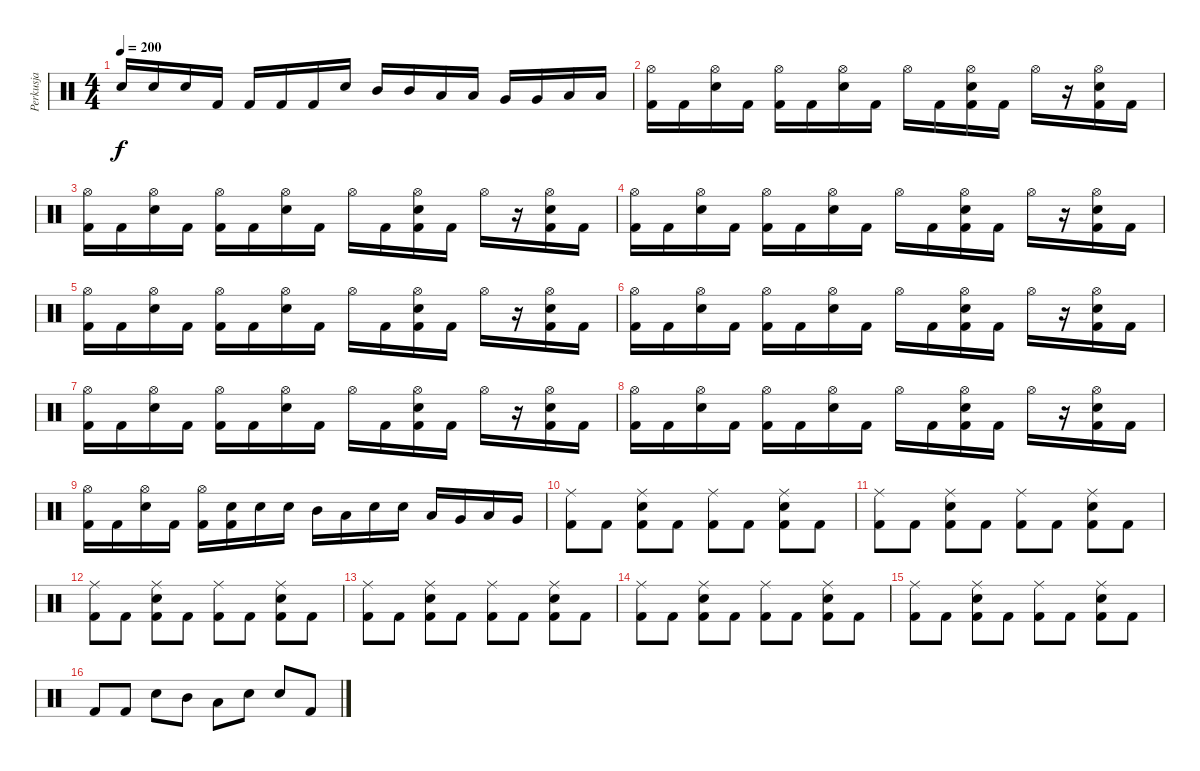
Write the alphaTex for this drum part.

\track ("Perkusja" "Perkusja") {instrument percussion}
\staff {score}
\articulation defaults
\ts (4 4)
\tempo 200
\clef neutral
\ks c "Snare (hit) 2".16{dy f} "Snare (hit) 2".16 "Snare (hit) 2".16 "Kick (hit) 2".16 "Kick (hit) 2".16 "Kick (hit) 2".16 "Kick (hit) 2".16 "Snare (hit) 2".16 "Mid Tom (hit)".16 "Mid Tom (hit)".16 "Low Tom (hit)".16 "Low Tom (hit)".16 "Very Low Tom (hit)".16 "Very Low Tom (hit)".16 "Low Floor Tom (hit)".16 "Low Floor Tom (hit)".16
|
("Hi-Hat (open)" "Kick (hit) 2").16 "Kick (hit) 2".16 ("Hi-Hat (open)" "Snare (hit) 2").16 "Kick (hit) 2".16 ("Hi-Hat (open)" "Kick (hit) 2").16 "Kick (hit) 2".16 ("Hi-Hat (open)" "Snare (hit) 2").16 "Kick (hit) 2".16 "Hi-Hat (open)".16 "Kick (hit) 2".16 ("Hi-Hat (open)" "Snare (hit) 2" "Kick (hit) 2").16 "Kick (hit) 2".16 "Hi-Hat (open)".16 r.16 ("Hi-Hat (open)" "Snare (hit) 2" "Kick (hit) 2").16 "Kick (hit) 2".16 |
("Hi-Hat (open)" "Kick (hit) 2").16 "Kick (hit) 2".16 ("Hi-Hat (open)" "Snare (hit) 2").16 "Kick (hit) 2".16 ("Hi-Hat (open)" "Kick (hit) 2").16 "Kick (hit) 2".16 ("Hi-Hat (open)" "Snare (hit) 2").16 "Kick (hit) 2".16 "Hi-Hat (open)".16 "Kick (hit) 2".16 ("Hi-Hat (open)" "Snare (hit) 2" "Kick (hit) 2").16 "Kick (hit) 2".16 "Hi-Hat (open)".16 r.16 ("Hi-Hat (open)" "Snare (hit) 2" "Kick (hit) 2").16 "Kick (hit) 2".16 |
("Hi-Hat (open)" "Kick (hit) 2").16 "Kick (hit) 2".16 ("Hi-Hat (open)" "Snare (hit) 2").16 "Kick (hit) 2".16 ("Hi-Hat (open)" "Kick (hit) 2").16 "Kick (hit) 2".16 ("Hi-Hat (open)" "Snare (hit) 2").16 "Kick (hit) 2".16 "Hi-Hat (open)".16 "Kick (hit) 2".16 ("Hi-Hat (open)" "Snare (hit) 2" "Kick (hit) 2").16 "Kick (hit) 2".16 "Hi-Hat (open)".16 r.16 ("Hi-Hat (open)" "Snare (hit) 2" "Kick (hit) 2").16 "Kick (hit) 2".16 |
("Hi-Hat (open)" "Kick (hit) 2").16 "Kick (hit) 2".16 ("Hi-Hat (open)" "Snare (hit) 2").16 "Kick (hit) 2".16 ("Hi-Hat (open)" "Kick (hit) 2").16 "Kick (hit) 2".16 ("Hi-Hat (open)" "Snare (hit) 2").16 "Kick (hit) 2".16 "Hi-Hat (open)".16 "Kick (hit) 2".16 ("Hi-Hat (open)" "Snare (hit) 2" "Kick (hit) 2").16 "Kick (hit) 2".16 "Hi-Hat (open)".16 r.16 ("Hi-Hat (open)" "Snare (hit) 2" "Kick (hit) 2").16 "Kick (hit) 2".16 |
("Hi-Hat (open)" "Kick (hit) 2").16 "Kick (hit) 2".16 ("Hi-Hat (open)" "Snare (hit) 2").16 "Kick (hit) 2".16 ("Hi-Hat (open)" "Kick (hit) 2").16 "Kick (hit) 2".16 ("Hi-Hat (open)" "Snare (hit) 2").16 "Kick (hit) 2".16 "Hi-Hat (open)".16 "Kick (hit) 2".16 ("Hi-Hat (open)" "Snare (hit) 2" "Kick (hit) 2").16 "Kick (hit) 2".16 "Hi-Hat (open)".16 r.16 ("Hi-Hat (open)" "Snare (hit) 2" "Kick (hit) 2").16 "Kick (hit) 2".16 |
("Hi-Hat (open)" "Kick (hit) 2").16 "Kick (hit) 2".16 ("Hi-Hat (open)" "Snare (hit) 2").16 "Kick (hit) 2".16 ("Hi-Hat (open)" "Kick (hit) 2").16 "Kick (hit) 2".16 ("Hi-Hat (open)" "Snare (hit) 2").16 "Kick (hit) 2".16 "Hi-Hat (open)".16 "Kick (hit) 2".16 ("Hi-Hat (open)" "Snare (hit) 2" "Kick (hit) 2").16 "Kick (hit) 2".16 "Hi-Hat (open)".16 r.16 ("Hi-Hat (open)" "Snare (hit) 2" "Kick (hit) 2").16 "Kick (hit) 2".16 |
("Hi-Hat (open)" "Kick (hit) 2").16 "Kick (hit) 2".16 ("Hi-Hat (open)" "Snare (hit) 2").16 "Kick (hit) 2".16 ("Hi-Hat (open)" "Kick (hit) 2").16 "Kick (hit) 2".16 ("Hi-Hat (open)" "Snare (hit) 2").16 "Kick (hit) 2".16 "Hi-Hat (open)".16 "Kick (hit) 2".16 ("Hi-Hat (open)" "Snare (hit) 2" "Kick (hit) 2").16 "Kick (hit) 2".16 "Hi-Hat (open)".16 r.16 ("Hi-Hat (open)" "Snare (hit) 2" "Kick (hit) 2").16 "Kick (hit) 2".16 |
("Hi-Hat (open)" "Kick (hit) 2").16 "Kick (hit) 2".16 ("Hi-Hat (open)" "Snare (hit) 2").16 "Kick (hit) 2".16 ("Hi-Hat (open)" "Kick (hit) 2").16 ("Snare (hit) 2" "Kick (hit) 2").16 "Snare (hit) 2".16 "Snare (hit) 2".16 "Mid Tom (hit)".16 "Low Tom (hit)".16 "Snare (hit) 2".16 "Snare (hit) 2".16 "Low Tom (hit)".16 "Very Low Tom (hit)".16 "Low Floor Tom (hit)".16 "Very Low Tom (hit)".16 |
("Ride (middle)" "Kick (hit) 2").8 "Kick (hit) 2".8 ("Ride (middle)" "Snare (hit) 2" "Kick (hit) 2").8 "Kick (hit) 2".8 ("Ride (middle)" "Kick (hit) 2").8 "Kick (hit) 2".8 ("Ride (middle)" "Snare (hit) 2" "Kick (hit) 2").8 "Kick (hit) 2".8 |
("Ride (middle)" "Kick (hit) 2").8 "Kick (hit) 2".8 ("Ride (middle)" "Snare (hit) 2" "Kick (hit) 2").8 "Kick (hit) 2".8 ("Ride (middle)" "Kick (hit) 2").8 "Kick (hit) 2".8 ("Ride (middle)" "Snare (hit) 2" "Kick (hit) 2").8 "Kick (hit) 2".8 |
("Ride (middle)" "Kick (hit) 2").8 "Kick (hit) 2".8 ("Ride (middle)" "Snare (hit) 2" "Kick (hit) 2").8 "Kick (hit) 2".8 ("Ride (middle)" "Kick (hit) 2").8 "Kick (hit) 2".8 ("Ride (middle)" "Snare (hit) 2" "Kick (hit) 2").8 "Kick (hit) 2".8 |
("Ride (middle)" "Kick (hit) 2").8 "Kick (hit) 2".8 ("Ride (middle)" "Snare (hit) 2" "Kick (hit) 2").8 "Kick (hit) 2".8 ("Ride (middle)" "Kick (hit) 2").8 "Kick (hit) 2".8 ("Ride (middle)" "Snare (hit) 2" "Kick (hit) 2").8 "Kick (hit) 2".8 |
("Ride (middle)" "Kick (hit) 2").8 "Kick (hit) 2".8 ("Ride (middle)" "Snare (hit) 2" "Kick (hit) 2").8 "Kick (hit) 2".8 ("Ride (middle)" "Kick (hit) 2").8 "Kick (hit) 2".8 ("Ride (middle)" "Snare (hit) 2" "Kick (hit) 2").8 "Kick (hit) 2".8 |
("Ride (middle)" "Kick (hit) 2").8 "Kick (hit) 2".8 ("Ride (middle)" "Snare (hit) 2" "Kick (hit) 2").8 "Kick (hit) 2".8 ("Ride (middle)" "Kick (hit) 2").8 "Kick (hit) 2".8 ("Ride (middle)" "Snare (hit) 2" "Kick (hit) 2").8 "Kick (hit) 2".8 |
"Kick (hit) 2".8 "Kick (hit) 2".8 "Snare (hit) 2".8 "Mid Tom (hit)".8 "Low Tom (hit)".8 "Snare (hit) 2".8 "Snare (hit) 2".8 "Kick (hit) 2".8
